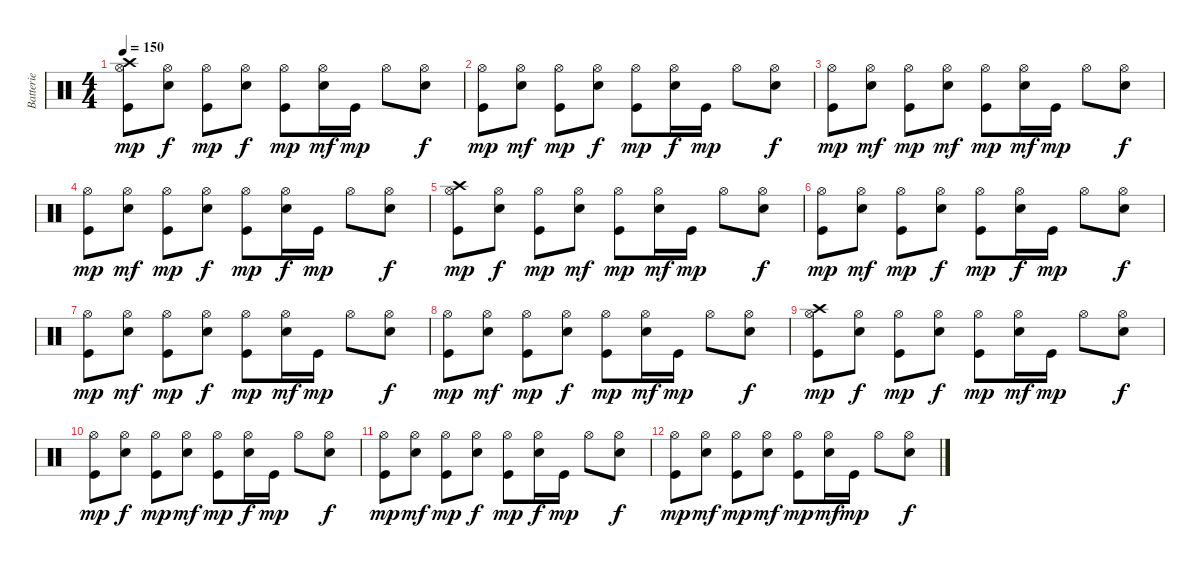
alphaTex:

\track ("Batterie" "Batterie") {instrument percussion}
\staff {score}
\articulation defaults
\ts (4 4)
\tempo 150
\clef neutral
\ks c
("Hi-Hat (open)" "Crash high (hit)" "Kick (hit)").8{dy mp} ("Hi-Hat (open)" "Snare (hit) 2").8{dy f} ("Hi-Hat (open)" "Kick (hit)").8{dy mp} ("Hi-Hat (open)" "Snare (hit) 2").8{dy f} ("Hi-Hat (open)" "Kick (hit)").8{dy mp} ("Hi-Hat (open)" "Snare (hit) 2").16{dy mf} "Kick (hit)".16{dy mp} "Hi-Hat (open)".8 ("Hi-Hat (open)" "Snare (hit) 2").8{dy f} |
("Hi-Hat (open)" "Kick (hit)").8{dy mp} ("Hi-Hat (open)" "Snare (hit) 2").8{dy mf} ("Hi-Hat (open)" "Kick (hit)").8{dy mp} ("Hi-Hat (open)" "Snare (hit) 2").8{dy f} ("Hi-Hat (open)" "Kick (hit)").8{dy mp} ("Hi-Hat (open)" "Snare (hit) 2").16{dy f} "Kick (hit)".16{dy mp} "Hi-Hat (open)".8 ("Hi-Hat (open)" "Snare (hit) 2").8{dy f} |
("Hi-Hat (open)" "Kick (hit)").8{dy mp} ("Hi-Hat (open)" "Snare (hit) 2").8{dy mf} ("Hi-Hat (open)" "Kick (hit)").8{dy mp} ("Hi-Hat (open)" "Snare (hit) 2").8{dy mf} ("Hi-Hat (open)" "Kick (hit)").8{dy mp} ("Hi-Hat (open)" "Snare (hit) 2").16{dy mf} "Kick (hit)".16{dy mp} "Hi-Hat (open)".8 ("Hi-Hat (open)" "Snare (hit) 2").8{dy f} |
("Hi-Hat (open)" "Kick (hit)").8{dy mp} ("Hi-Hat (open)" "Snare (hit) 2").8{dy mf} ("Hi-Hat (open)" "Kick (hit)").8{dy mp} ("Hi-Hat (open)" "Snare (hit) 2").8{dy f} ("Hi-Hat (open)" "Kick (hit)").8{dy mp} ("Hi-Hat (open)" "Snare (hit) 2").16{dy f} "Kick (hit)".16{dy mp} "Hi-Hat (open)".8 ("Hi-Hat (open)" "Snare (hit) 2").8{dy f} |
("Hi-Hat (open)" "Crash high (hit)" "Kick (hit)").8{dy mp volume 12} ("Hi-Hat (open)" "Snare (hit) 2").8{dy f} ("Hi-Hat (open)" "Kick (hit)").8{dy mp} ("Hi-Hat (open)" "Snare (hit) 2").8{dy mf} ("Hi-Hat (open)" "Kick (hit)").8{dy mp volume 11} ("Hi-Hat (open)" "Snare (hit) 2").16{dy mf} "Kick (hit)".16{dy mp} "Hi-Hat (open)".8 ("Hi-Hat (open)" "Snare (hit) 2").8{dy f} |
("Hi-Hat (open)" "Kick (hit)").8{dy mp volume 11} ("Hi-Hat (open)" "Snare (hit) 2").8{dy mf} ("Hi-Hat (open)" "Kick (hit)").8{dy mp} ("Hi-Hat (open)" "Snare (hit) 2").8{dy f} ("Hi-Hat (open)" "Kick (hit)").8{dy mp} ("Hi-Hat (open)" "Snare (hit) 2").16{dy f volume 10} "Kick (hit)".16{dy mp} "Hi-Hat (open)".8 ("Hi-Hat (open)" "Snare (hit) 2").8{dy f} |
("Hi-Hat (open)" "Kick (hit)").8{dy mp volume 9} ("Hi-Hat (open)" "Snare (hit) 2").8{dy mf} ("Hi-Hat (open)" "Kick (hit)").8{dy mp} ("Hi-Hat (open)" "Snare (hit) 2").8{dy f} ("Hi-Hat (open)" "Kick (hit)").8{dy mp} ("Hi-Hat (open)" "Snare (hit) 2").16{dy mf} "Kick (hit)".16{dy mp} "Hi-Hat (open)".8 ("Hi-Hat (open)" "Snare (hit) 2").8{dy f} |
("Hi-Hat (open)" "Kick (hit)").8{dy mp volume 8} ("Hi-Hat (open)" "Snare (hit) 2").8{dy mf} ("Hi-Hat (open)" "Kick (hit)").8{dy mp} ("Hi-Hat (open)" "Snare (hit) 2").8{dy f} ("Hi-Hat (open)" "Kick (hit)").8{dy mp} ("Hi-Hat (open)" "Snare (hit) 2").16{dy mf volume 7} "Kick (hit)".16{dy mp} "Hi-Hat (open)".8 ("Hi-Hat (open)" "Snare (hit) 2").8{dy f} |
("Hi-Hat (open)" "Crash high (hit)" "Kick (hit)").8{dy mp volume 6} ("Hi-Hat (open)" "Snare (hit) 2").8{dy f} ("Hi-Hat (open)" "Kick (hit)").8{dy mp} ("Hi-Hat (open)" "Snare (hit) 2").8{dy f} ("Hi-Hat (open)" "Kick (hit)").8{dy mp} ("Hi-Hat (open)" "Snare (hit) 2").16{dy mf volume 6} "Kick (hit)".16{dy mp} "Hi-Hat (open)".8 ("Hi-Hat (open)" "Snare (hit) 2").8{dy f} |
("Hi-Hat (open)" "Kick (hit)").8{dy mp volume 5} ("Hi-Hat (open)" "Snare (hit) 2").8{dy f} ("Hi-Hat (open)" "Kick (hit)").8{dy mp} ("Hi-Hat (open)" "Snare (hit) 2").8{dy mf} ("Hi-Hat (open)" "Kick (hit)").8{dy mp} ("Hi-Hat (open)" "Snare (hit) 2").16{dy f volume 4} "Kick (hit)".16{dy mp} "Hi-Hat (open)".8 ("Hi-Hat (open)" "Snare (hit) 2").8{dy f} |
("Hi-Hat (open)" "Kick (hit)").8{dy mp volume 4} ("Hi-Hat (open)" "Snare (hit) 2").8{dy mf} ("Hi-Hat (open)" "Kick (hit)").8{dy mp} ("Hi-Hat (open)" "Snare (hit) 2").8{dy f} ("Hi-Hat (open)" "Kick (hit)").8{dy mp volume 3} ("Hi-Hat (open)" "Snare (hit) 2").16{dy f} "Kick (hit)".16{dy mp} "Hi-Hat (open)".8 ("Hi-Hat (open)" "Snare (hit) 2").8{dy f} |
("Hi-Hat (open)" "Kick (hit)").8{dy mp volume 2} ("Hi-Hat (open)" "Snare (hit) 2").8{dy mf} ("Hi-Hat (open)" "Kick (hit)").8{dy mp volume 2} ("Hi-Hat (open)" "Snare (hit) 2").8{dy mf} ("Hi-Hat (open)" "Kick (hit)").8{dy mp} ("Hi-Hat (open)" "Snare (hit) 2").16{dy mf volume 1} "Kick (hit)".16{dy mp} "Hi-Hat (open)".8 ("Hi-Hat (open)" "Snare (hit) 2").8{dy f volume 1}
